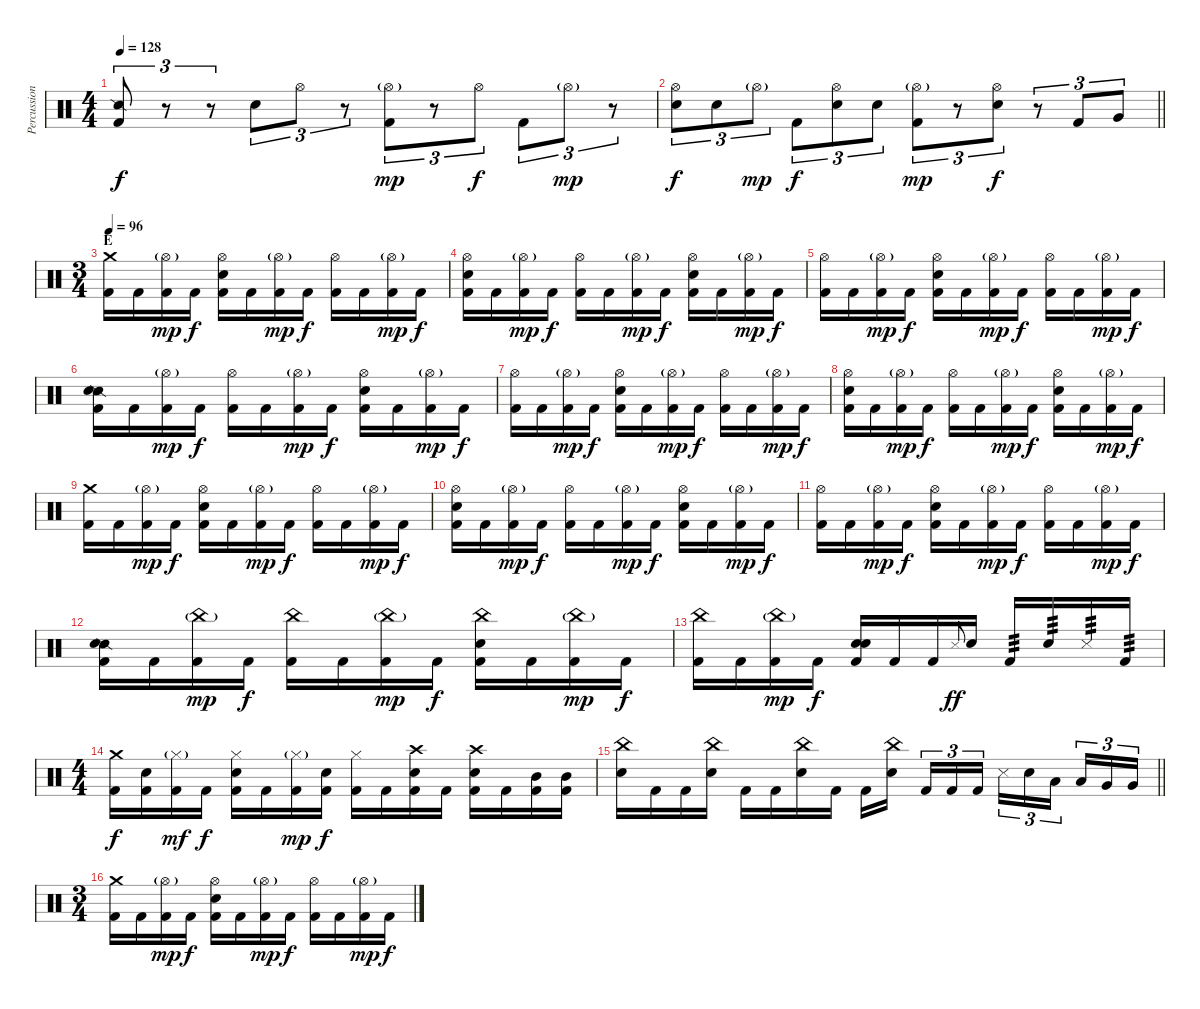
\track ("Percussion" "Percussion") {instrument percussion}
\staff {score}
\articulation defaults
\ts (4 4)
\tempo 128
\clef neutral
\ks c
("Snare (side stick) 2" "Kick (hit) 2").8{tu (3 2) dy f} r.8{tu (3 2)} r.8{tu (3 2)} "Snare (hit) 2".8{tu (3 2)} "Hi-Hat (open)".8{tu (3 2)} r.8{tu (3 2)} ("Hi-Hat (open)"{g} "Kick (hit) 2").8{tu (3 2) dy mp} r.8{tu (3 2)} "Hi-Hat (open)".8{tu (3 2) dy f} "Kick (hit) 2".8{tu (3 2)} "Hi-Hat (open)"{g}.8{tu (3 2) dy mp} r.8{tu (3 2)} |
\barLineRight lightlight
("Hi-Hat (open)" "Snare (hit) 2").8{tu (3 2) dy f} "Snare (hit) 2".8{tu (3 2)} "Hi-Hat (open)"{g}.8{tu (3 2) dy mp} "Kick (hit) 2".8{tu (3 2) dy f} ("Hi-Hat (open)" "Snare (hit) 2").8{tu (3 2)} "Snare (hit) 2".8{tu (3 2)} ("Hi-Hat (open)"{g} "Kick (hit) 2").8{tu (3 2) dy mp} r.8{tu (3 2)} ("Hi-Hat (open)" "Snare (hit) 2").8{tu (3 2) dy f} r.8{tu (3 2)} "Kick (hit) 2".8{tu (3 2)} "Very Low Tom (hit)".8{tu (3 2)} |
\ts (3 4)
\section ("" "E")
\tempo 96
("Crash medium (hit)" "Kick (hit) 2").16 "Kick (hit) 2".16 ("Hi-Hat (open)"{g} "Kick (hit) 2").16{dy mp} "Kick (hit) 2".16{dy f} ("Hi-Hat (open)" "Snare (hit) 2" "Kick (hit) 2").16 "Kick (hit) 2".16 ("Hi-Hat (open)"{g} "Kick (hit) 2").16{dy mp} "Kick (hit) 2".16{dy f} ("Hi-Hat (open)" "Kick (hit) 2").16 "Kick (hit) 2".16 ("Hi-Hat (open)"{g} "Kick (hit) 2").16{dy mp} "Kick (hit) 2".16{dy f} |
("Hi-Hat (open)" "Snare (hit) 2" "Kick (hit) 2").16 "Kick (hit) 2".16 ("Hi-Hat (open)"{g} "Kick (hit) 2").16{dy mp} "Kick (hit) 2".16{dy f} ("Hi-Hat (open)" "Kick (hit) 2").16 "Kick (hit) 2".16 ("Hi-Hat (open)"{g} "Kick (hit) 2").16{dy mp} "Kick (hit) 2".16{dy f} ("Hi-Hat (open)" "Snare (hit) 2" "Kick (hit) 2").16 "Kick (hit) 2".16 ("Hi-Hat (open)"{g} "Kick (hit) 2").16{dy mp} "Kick (hit) 2".16{dy f} |
("Hi-Hat (open)" "Kick (hit) 2").16 "Kick (hit) 2".16 ("Hi-Hat (open)"{g} "Kick (hit) 2").16{dy mp} "Kick (hit) 2".16{dy f} ("Hi-Hat (open)" "Snare (hit) 2" "Kick (hit) 2").16 "Kick (hit) 2".16 ("Hi-Hat (open)"{g} "Kick (hit) 2").16{dy mp} "Kick (hit) 2".16{dy f} ("Hi-Hat (open)" "Kick (hit) 2").16 "Kick (hit) 2".16 ("Hi-Hat (open)"{g} "Kick (hit) 2").16{dy mp} "Kick (hit) 2".16{dy f} |
("Snare (side stick) 2" "Snare (hit) 2" "Kick (hit) 2").16 "Kick (hit) 2".16 ("Hi-Hat (open)"{g} "Kick (hit) 2").16{dy mp} "Kick (hit) 2".16{dy f} ("Hi-Hat (open)" "Kick (hit) 2").16 "Kick (hit) 2".16 ("Hi-Hat (open)"{g} "Kick (hit) 2").16{dy mp} "Kick (hit) 2".16{dy f} ("Hi-Hat (open)" "Snare (hit) 2" "Kick (hit) 2").16 "Kick (hit) 2".16 ("Hi-Hat (open)"{g} "Kick (hit) 2").16{dy mp} "Kick (hit) 2".16{dy f} |
("Hi-Hat (open)" "Kick (hit) 2").16 "Kick (hit) 2".16 ("Hi-Hat (open)"{g} "Kick (hit) 2").16{dy mp} "Kick (hit) 2".16{dy f} ("Hi-Hat (open)" "Snare (hit) 2" "Kick (hit) 2").16 "Kick (hit) 2".16 ("Hi-Hat (open)"{g} "Kick (hit) 2").16{dy mp} "Kick (hit) 2".16{dy f} ("Hi-Hat (open)" "Kick (hit) 2").16 "Kick (hit) 2".16 ("Hi-Hat (open)"{g} "Kick (hit) 2").16{dy mp} "Kick (hit) 2".16{dy f} |
("Hi-Hat (open)" "Snare (hit) 2" "Kick (hit) 2").16 "Kick (hit) 2".16 ("Hi-Hat (open)"{g} "Kick (hit) 2").16{dy mp} "Kick (hit) 2".16{dy f} ("Hi-Hat (open)" "Kick (hit) 2").16 "Kick (hit) 2".16 ("Hi-Hat (open)"{g} "Kick (hit) 2").16{dy mp} "Kick (hit) 2".16{dy f} ("Hi-Hat (open)" "Snare (hit) 2" "Kick (hit) 2").16 "Kick (hit) 2".16 ("Hi-Hat (open)"{g} "Kick (hit) 2").16{dy mp} "Kick (hit) 2".16{dy f} |
("Crash medium (hit)" "Kick (hit) 2").16 "Kick (hit) 2".16 ("Hi-Hat (open)"{g} "Kick (hit) 2").16{dy mp} "Kick (hit) 2".16{dy f} ("Hi-Hat (open)" "Snare (hit) 2" "Kick (hit) 2").16 "Kick (hit) 2".16 ("Hi-Hat (open)"{g} "Kick (hit) 2").16{dy mp} "Kick (hit) 2".16{dy f} ("Hi-Hat (open)" "Kick (hit) 2").16 "Kick (hit) 2".16 ("Hi-Hat (open)"{g} "Kick (hit) 2").16{dy mp} "Kick (hit) 2".16{dy f} |
("Hi-Hat (open)" "Snare (hit) 2" "Kick (hit) 2").16 "Kick (hit) 2".16 ("Hi-Hat (open)"{g} "Kick (hit) 2").16{dy mp} "Kick (hit) 2".16{dy f} ("Hi-Hat (open)" "Kick (hit) 2").16 "Kick (hit) 2".16 ("Hi-Hat (open)"{g} "Kick (hit) 2").16{dy mp} "Kick (hit) 2".16{dy f} ("Hi-Hat (open)" "Snare (hit) 2" "Kick (hit) 2").16 "Kick (hit) 2".16 ("Hi-Hat (open)"{g} "Kick (hit) 2").16{dy mp} "Kick (hit) 2".16{dy f} |
("Hi-Hat (open)" "Kick (hit) 2").16 "Kick (hit) 2".16 ("Hi-Hat (open)"{g} "Kick (hit) 2").16{dy mp} "Kick (hit) 2".16{dy f} ("Hi-Hat (open)" "Snare (hit) 2" "Kick (hit) 2").16 "Kick (hit) 2".16 ("Hi-Hat (open)"{g} "Kick (hit) 2").16{dy mp} "Kick (hit) 2".16{dy f} ("Hi-Hat (open)" "Kick (hit) 2").16 "Kick (hit) 2".16 ("Hi-Hat (open)"{g} "Kick (hit) 2").16{dy mp} "Kick (hit) 2".16{dy f} |
("Snare (side stick) 2" "Snare (hit) 2" "Kick (hit) 2").16 "Kick (hit) 2".16 ("China (hit)"{g} "Kick (hit) 2").16{dy mp} "Kick (hit) 2".16{dy f} ("China (hit)" "Kick (hit) 2").16 "Kick (hit) 2".16 ("China (hit)"{g} "Kick (hit) 2").16{dy mp} "Kick (hit) 2".16{dy f} ("China (hit)" "Snare (hit) 2" "Kick (hit) 2").16 "Kick (hit) 2".16 ("China (hit)"{g} "Kick (hit) 2").16{dy mp} "Kick (hit) 2".16{dy f} |
("China (hit)" "Kick (hit) 2").16 "Kick (hit) 2".16 ("China (hit)"{g} "Kick (hit) 2").16{dy mp} "Kick (hit) 2".16{dy f} ("Snare (hit)" "Snare (hit) 2" "Kick (hit) 2").16 "Kick (hit) 2".16 "Kick (hit) 2".16 "Metronome (hit)".8{gr onbeat dy ff} "Snare (hit) 2".16 "Kick (hit) 2".16{tp 3} "Snare (hit) 2".16{tp 3} "Metronome (hit)".16{tp 3} "Kick (hit) 2".16{tp 3} |
\ts (4 4)
("Crash medium (hit)" "Kick (hit) 2").16{dy f} ("Snare (hit) 2" "Kick (hit) 2").16 ("Hi-Hat (closed)"{g} "Kick (hit) 2").16{dy mf} "Kick (hit) 2".16{dy f} ("Hi-Hat (closed)" "Snare (hit) 2" "Kick (hit) 2").16 "Kick (hit) 2".16 ("Hi-Hat (closed)"{g} "Kick (hit) 2").16{dy mp} ("Snare (hit) 2" "Kick (hit) 2").16{dy f} ("Hi-Hat (closed)" "Kick (hit) 2").16 "Kick (hit) 2".16 ("Crash high (hit)" "Snare (hit) 2" "Kick (hit) 2").16 "Kick (hit) 2".16 ("Crash high (hit)" "Snare (hit) 2" "Kick (hit) 2").16 "Kick (hit) 2".16 ("Mid Tom (hit)" "Kick (hit) 2").16 ("Mid Tom (hit)" "Kick (hit) 2").16 |
\barLineRight lightlight
("China (hit)" "Snare (hit) 2").16 "Kick (hit) 2".16 "Kick (hit) 2".16 ("China (hit)" "Snare (hit) 2").16 "Kick (hit) 2".16 "Kick (hit) 2".16 ("China (hit)" "Snare (hit) 2").16 "Kick (hit) 2".16 "Kick (hit) 2".16 ("China (hit)" "Snare (hit) 2").16{beam splitsecondary} "Kick (hit) 2".16{tu (3 2)} "Kick (hit) 2".16{tu (3 2)} "Kick (hit) 2".16{tu (3 2)} "Metronome (hit)".16{tu (3 2)} "Snare (hit) 2".16{tu (3 2)} "Low Tom (hit)".16{tu (3 2) beam splitsecondary} "Low Tom (hit)".16{tu (3 2)} "Very Low Tom (hit)".16{tu (3 2)} "Very Low Tom (hit)".16{tu (3 2)} |
\ts (3 4)
("Crash medium (hit)" "Kick (hit) 2").16 "Kick (hit) 2".16 ("Hi-Hat (open)"{g} "Kick (hit) 2").16{dy mp} "Kick (hit) 2".16{dy f} ("Hi-Hat (open)" "Snare (hit) 2" "Kick (hit) 2").16 "Kick (hit) 2".16 ("Hi-Hat (open)"{g} "Kick (hit) 2").16{dy mp} "Kick (hit) 2".16{dy f} ("Hi-Hat (open)" "Kick (hit) 2").16 "Kick (hit) 2".16 ("Hi-Hat (open)"{g} "Kick (hit) 2").16{dy mp} "Kick (hit) 2".16{dy f}
